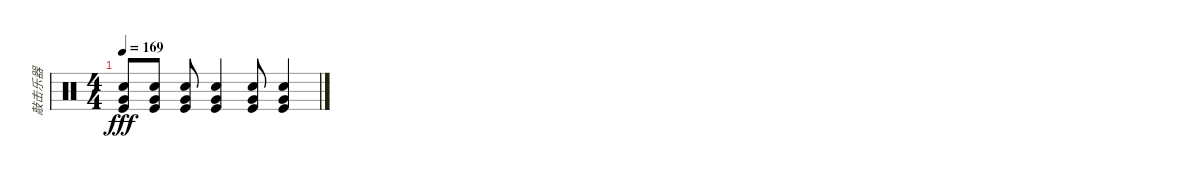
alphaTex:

\track ("敲击乐器" "敲击乐器") {instrument percussion}
\staff {score}
\articulation defaults
\ts (4 4)
\tempo 169
\clef neutral
\ks c
("Electric Snare (hit)" "Kick (hit)" "Very Low Tom (hit)").8{dy fff} ("Electric Snare (hit)" "Kick (hit)" "Very Low Tom (hit)").8 ("Electric Snare (hit)" "Kick (hit)" "Very Low Tom (hit)").8 ("Electric Snare (hit)" "Kick (hit)" "Very Low Tom (hit)").4 ("Very Low Tom (hit)" "Electric Snare (hit)" "Kick (hit)").8 ("Very Low Tom (hit)" "Electric Snare (hit)" "Kick (hit)").4
